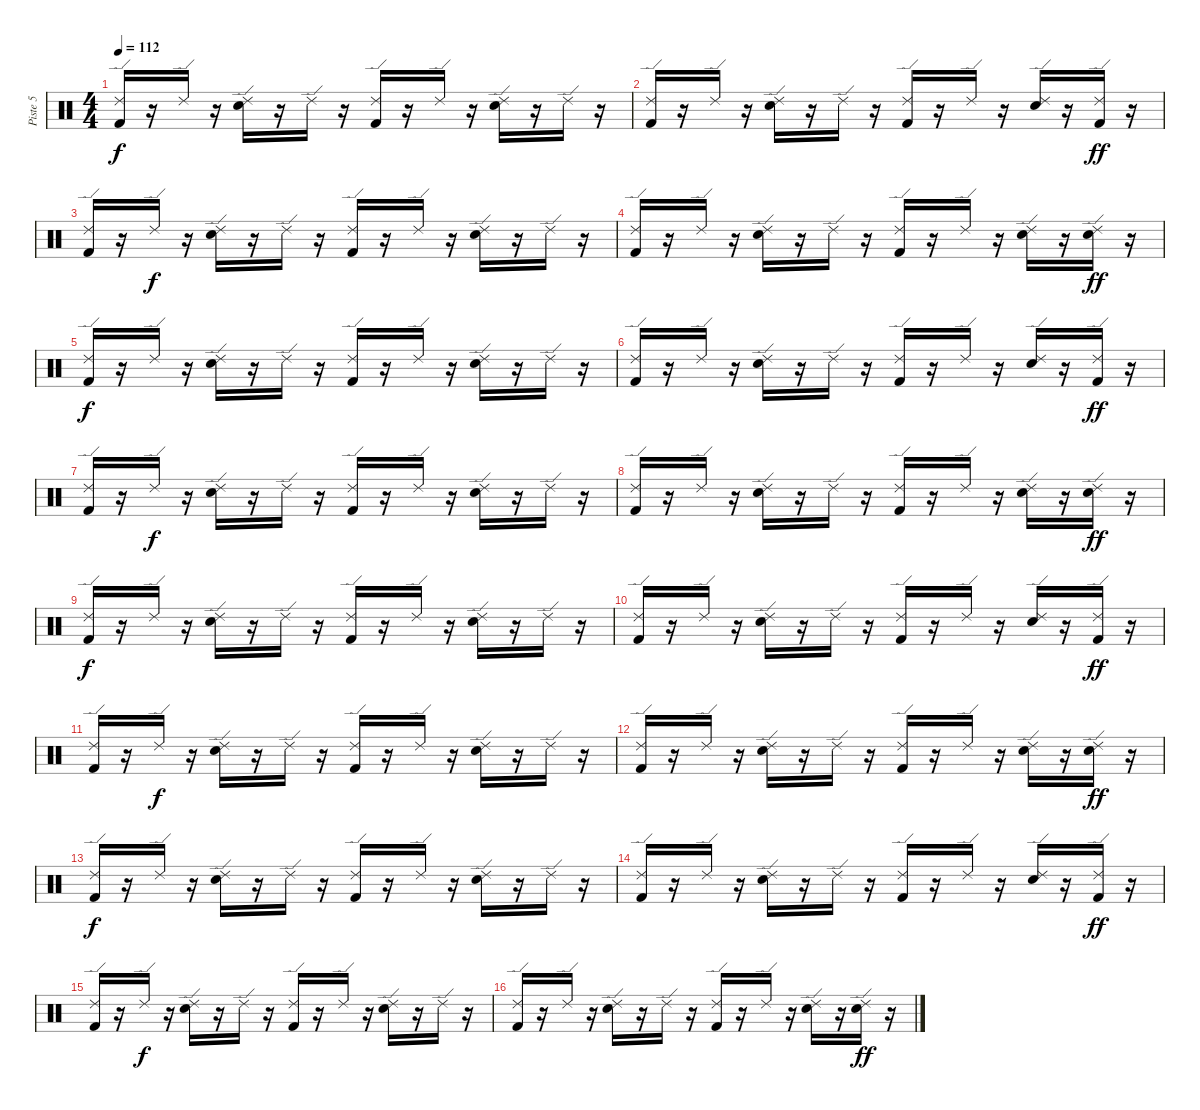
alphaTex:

\track ("Piste 5" "Piste 5") {instrument percussion}
\staff {score}
\articulation defaults
\ts (4 4)
\tempo 112
\clef neutral
\ks c
("Kick (hit) 2" "Ride (edge) 2").16{dy f} r.16 "Ride (edge) 2".16 r.16 ("Electric Snare (hit)" "Ride (edge) 2").16 r.16 "Ride (edge) 2".16 r.16 ("Kick (hit) 2" "Ride (edge) 2").16 r.16 "Ride (edge) 2".16 r.16 ("Electric Snare (hit)" "Ride (edge) 2").16 r.16 "Ride (edge) 2".16 r.16 |
("Kick (hit) 2" "Ride (edge) 2").16 r.16 "Ride (edge) 2".16 r.16 ("Electric Snare (hit)" "Ride (edge) 2").16 r.16 "Ride (edge) 2".16 r.16 ("Kick (hit) 2" "Ride (edge) 2").16 r.16 "Ride (edge) 2".16 r.16 ("Electric Snare (hit)" "Ride (edge) 2").16 r.16 ("Kick (hit) 2" "Ride (edge) 2").16{dy ff} r.16 |
("Kick (hit) 2" "Ride (edge) 2").16 r.16 "Ride (edge) 2".16{dy f} r.16 ("Electric Snare (hit)" "Ride (edge) 2").16 r.16 "Ride (edge) 2".16 r.16 ("Kick (hit) 2" "Ride (edge) 2").16 r.16 "Ride (edge) 2".16 r.16 ("Electric Snare (hit)" "Ride (edge) 2").16 r.16 "Ride (edge) 2".16 r.16 |
("Kick (hit) 2" "Ride (edge) 2").16 r.16 "Ride (edge) 2".16 r.16 ("Electric Snare (hit)" "Ride (edge) 2").16 r.16 "Ride (edge) 2".16 r.16 ("Kick (hit) 2" "Ride (edge) 2").16 r.16 "Ride (edge) 2".16 r.16 ("Electric Snare (hit)" "Ride (edge) 2").16 r.16 ("Electric Snare (hit)" "Ride (edge) 2").16{dy ff} r.16 |
("Kick (hit) 2" "Ride (edge) 2").16{dy f} r.16 "Ride (edge) 2".16 r.16 ("Electric Snare (hit)" "Ride (edge) 2").16 r.16 "Ride (edge) 2".16 r.16 ("Kick (hit) 2" "Ride (edge) 2").16 r.16 "Ride (edge) 2".16 r.16 ("Electric Snare (hit)" "Ride (edge) 2").16 r.16 "Ride (edge) 2".16 r.16 |
("Kick (hit) 2" "Ride (edge) 2").16 r.16 "Ride (edge) 2".16 r.16 ("Electric Snare (hit)" "Ride (edge) 2").16 r.16 "Ride (edge) 2".16 r.16 ("Kick (hit) 2" "Ride (edge) 2").16 r.16 "Ride (edge) 2".16 r.16 ("Electric Snare (hit)" "Ride (edge) 2").16 r.16 ("Kick (hit) 2" "Ride (edge) 2").16{dy ff} r.16 |
("Kick (hit) 2" "Ride (edge) 2").16 r.16 "Ride (edge) 2".16{dy f} r.16 ("Electric Snare (hit)" "Ride (edge) 2").16 r.16 "Ride (edge) 2".16 r.16 ("Kick (hit) 2" "Ride (edge) 2").16 r.16 "Ride (edge) 2".16 r.16 ("Electric Snare (hit)" "Ride (edge) 2").16 r.16 "Ride (edge) 2".16 r.16 |
("Kick (hit) 2" "Ride (edge) 2").16 r.16 "Ride (edge) 2".16 r.16 ("Electric Snare (hit)" "Ride (edge) 2").16 r.16 "Ride (edge) 2".16 r.16 ("Kick (hit) 2" "Ride (edge) 2").16 r.16 "Ride (edge) 2".16 r.16 ("Electric Snare (hit)" "Ride (edge) 2").16 r.16 ("Electric Snare (hit)" "Ride (edge) 2").16{dy ff} r.16 |
("Kick (hit) 2" "Ride (edge) 2").16{dy f} r.16 "Ride (edge) 2".16 r.16 ("Electric Snare (hit)" "Ride (edge) 2").16 r.16 "Ride (edge) 2".16 r.16 ("Kick (hit) 2" "Ride (edge) 2").16 r.16 "Ride (edge) 2".16 r.16 ("Electric Snare (hit)" "Ride (edge) 2").16 r.16 "Ride (edge) 2".16 r.16 |
("Kick (hit) 2" "Ride (edge) 2").16 r.16 "Ride (edge) 2".16 r.16 ("Electric Snare (hit)" "Ride (edge) 2").16 r.16 "Ride (edge) 2".16 r.16 ("Kick (hit) 2" "Ride (edge) 2").16 r.16 "Ride (edge) 2".16 r.16 ("Electric Snare (hit)" "Ride (edge) 2").16 r.16 ("Kick (hit) 2" "Ride (edge) 2").16{dy ff} r.16 |
("Kick (hit) 2" "Ride (edge) 2").16 r.16 "Ride (edge) 2".16{dy f} r.16 ("Electric Snare (hit)" "Ride (edge) 2").16 r.16 "Ride (edge) 2".16 r.16 ("Kick (hit) 2" "Ride (edge) 2").16 r.16 "Ride (edge) 2".16 r.16 ("Electric Snare (hit)" "Ride (edge) 2").16 r.16 "Ride (edge) 2".16 r.16 |
("Kick (hit) 2" "Ride (edge) 2").16 r.16 "Ride (edge) 2".16 r.16 ("Electric Snare (hit)" "Ride (edge) 2").16 r.16 "Ride (edge) 2".16 r.16 ("Kick (hit) 2" "Ride (edge) 2").16 r.16 "Ride (edge) 2".16 r.16 ("Electric Snare (hit)" "Ride (edge) 2").16 r.16 ("Electric Snare (hit)" "Ride (edge) 2").16{dy ff} r.16 |
("Kick (hit) 2" "Ride (edge) 2").16{dy f} r.16 "Ride (edge) 2".16 r.16 ("Electric Snare (hit)" "Ride (edge) 2").16 r.16 "Ride (edge) 2".16 r.16 ("Kick (hit) 2" "Ride (edge) 2").16 r.16 "Ride (edge) 2".16 r.16 ("Electric Snare (hit)" "Ride (edge) 2").16 r.16 "Ride (edge) 2".16 r.16 |
("Kick (hit) 2" "Ride (edge) 2").16 r.16 "Ride (edge) 2".16 r.16 ("Electric Snare (hit)" "Ride (edge) 2").16 r.16 "Ride (edge) 2".16 r.16 ("Kick (hit) 2" "Ride (edge) 2").16 r.16 "Ride (edge) 2".16 r.16 ("Electric Snare (hit)" "Ride (edge) 2").16 r.16 ("Kick (hit) 2" "Ride (edge) 2").16{dy ff} r.16 |
("Kick (hit) 2" "Ride (edge) 2").16 r.16 "Ride (edge) 2".16{dy f} r.16 ("Electric Snare (hit)" "Ride (edge) 2").16 r.16 "Ride (edge) 2".16 r.16 ("Kick (hit) 2" "Ride (edge) 2").16 r.16 "Ride (edge) 2".16 r.16 ("Electric Snare (hit)" "Ride (edge) 2").16 r.16 "Ride (edge) 2".16 r.16 |
("Kick (hit) 2" "Ride (edge) 2").16 r.16 "Ride (edge) 2".16 r.16 ("Electric Snare (hit)" "Ride (edge) 2").16 r.16 "Ride (edge) 2".16 r.16 ("Kick (hit) 2" "Ride (edge) 2").16 r.16 "Ride (edge) 2".16 r.16 ("Electric Snare (hit)" "Ride (edge) 2").16 r.16 ("Electric Snare (hit)" "Ride (edge) 2").16{dy ff} r.16
